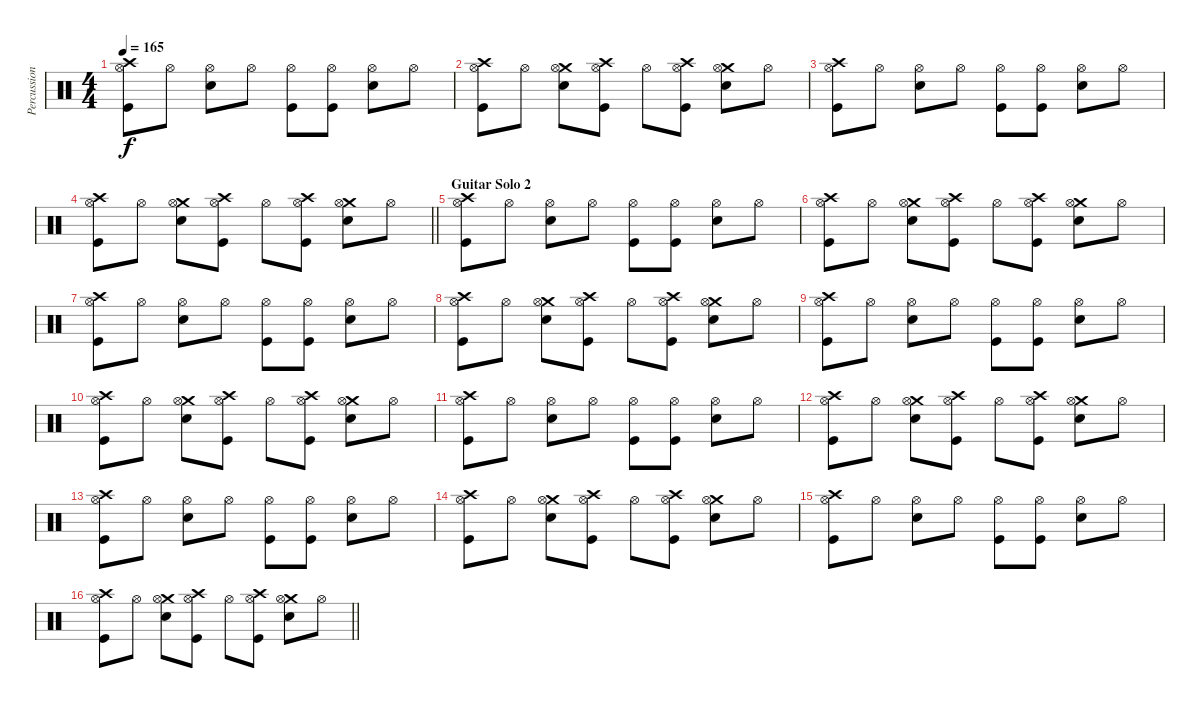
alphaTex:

\track ("Percussion" "Percussion") {instrument percussion}
\staff {score}
\articulation defaults
\ts (4 4)
\tempo 165
\clef neutral
\ks c
("Crash high (hit)" "Hi-Hat (open)" "Kick (hit)").8{dy f} "Hi-Hat (open)".8 ("Hi-Hat (open)" "Snare (hit) 2").8 "Hi-Hat (open)".8 ("Hi-Hat (open)" "Kick (hit)").8 ("Hi-Hat (open)" "Kick (hit)").8 ("Hi-Hat (open)" "Snare (hit) 2").8 "Hi-Hat (open)".8 |
("Crash high (hit)" "Hi-Hat (open)" "Kick (hit)").8 "Hi-Hat (open)".8 ("Crash medium (hit)" "Hi-Hat (open)" "Snare (hit) 2").8 ("Crash high (hit)" "Hi-Hat (open)" "Kick (hit)").8 "Hi-Hat (open)".8 ("Crash high (hit)" "Hi-Hat (open)" "Kick (hit)").8 ("Crash medium (hit)" "Hi-Hat (open)" "Snare (hit) 2").8 "Hi-Hat (open)".8 |
("Crash high (hit)" "Hi-Hat (open)" "Kick (hit)").8 "Hi-Hat (open)".8 ("Hi-Hat (open)" "Snare (hit) 2").8 "Hi-Hat (open)".8 ("Hi-Hat (open)" "Kick (hit)").8 ("Hi-Hat (open)" "Kick (hit)").8 ("Hi-Hat (open)" "Snare (hit) 2").8 "Hi-Hat (open)".8 |
\barLineRight lightlight
("Crash high (hit)" "Hi-Hat (open)" "Kick (hit)").8 "Hi-Hat (open)".8 ("Crash medium (hit)" "Hi-Hat (open)" "Snare (hit) 2").8 ("Crash high (hit)" "Hi-Hat (open)" "Kick (hit)").8 "Hi-Hat (open)".8 ("Crash high (hit)" "Hi-Hat (open)" "Kick (hit)").8 ("Crash medium (hit)" "Hi-Hat (open)" "Snare (hit) 2").8 "Hi-Hat (open)".8 |
\section ("" "Guitar Solo 2")
("Crash high (hit)" "Hi-Hat (open)" "Kick (hit)").8 "Hi-Hat (open)".8 ("Hi-Hat (open)" "Snare (hit) 2").8 "Hi-Hat (open)".8 ("Hi-Hat (open)" "Kick (hit)").8 ("Hi-Hat (open)" "Kick (hit)").8 ("Hi-Hat (open)" "Snare (hit) 2").8 "Hi-Hat (open)".8 |
("Crash high (hit)" "Hi-Hat (open)" "Kick (hit)").8 "Hi-Hat (open)".8 ("Crash medium (hit)" "Hi-Hat (open)" "Snare (hit) 2").8 ("Crash high (hit)" "Hi-Hat (open)" "Kick (hit)").8 "Hi-Hat (open)".8 ("Crash high (hit)" "Hi-Hat (open)" "Kick (hit)").8 ("Crash medium (hit)" "Hi-Hat (open)" "Snare (hit) 2").8 "Hi-Hat (open)".8 |
("Crash high (hit)" "Hi-Hat (open)" "Kick (hit)").8 "Hi-Hat (open)".8 ("Hi-Hat (open)" "Snare (hit) 2").8 "Hi-Hat (open)".8 ("Hi-Hat (open)" "Kick (hit)").8 ("Hi-Hat (open)" "Kick (hit)").8 ("Hi-Hat (open)" "Snare (hit) 2").8 "Hi-Hat (open)".8 |
("Crash high (hit)" "Hi-Hat (open)" "Kick (hit)").8 "Hi-Hat (open)".8 ("Crash medium (hit)" "Hi-Hat (open)" "Snare (hit) 2").8 ("Crash high (hit)" "Hi-Hat (open)" "Kick (hit)").8 "Hi-Hat (open)".8 ("Crash high (hit)" "Hi-Hat (open)" "Kick (hit)").8 ("Crash medium (hit)" "Hi-Hat (open)" "Snare (hit) 2").8 "Hi-Hat (open)".8 |
("Crash high (hit)" "Hi-Hat (open)" "Kick (hit)").8 "Hi-Hat (open)".8 ("Hi-Hat (open)" "Snare (hit) 2").8 "Hi-Hat (open)".8 ("Hi-Hat (open)" "Kick (hit)").8 ("Hi-Hat (open)" "Kick (hit)").8 ("Hi-Hat (open)" "Snare (hit) 2").8 "Hi-Hat (open)".8 |
("Crash high (hit)" "Hi-Hat (open)" "Kick (hit)").8 "Hi-Hat (open)".8 ("Crash medium (hit)" "Hi-Hat (open)" "Snare (hit) 2").8 ("Crash high (hit)" "Hi-Hat (open)" "Kick (hit)").8 "Hi-Hat (open)".8 ("Crash high (hit)" "Hi-Hat (open)" "Kick (hit)").8 ("Crash medium (hit)" "Hi-Hat (open)" "Snare (hit) 2").8 "Hi-Hat (open)".8 |
("Crash high (hit)" "Hi-Hat (open)" "Kick (hit)").8 "Hi-Hat (open)".8 ("Hi-Hat (open)" "Snare (hit) 2").8 "Hi-Hat (open)".8 ("Hi-Hat (open)" "Kick (hit)").8 ("Hi-Hat (open)" "Kick (hit)").8 ("Hi-Hat (open)" "Snare (hit) 2").8 "Hi-Hat (open)".8 |
("Crash high (hit)" "Hi-Hat (open)" "Kick (hit)").8 "Hi-Hat (open)".8 ("Crash medium (hit)" "Hi-Hat (open)" "Snare (hit) 2").8 ("Crash high (hit)" "Hi-Hat (open)" "Kick (hit)").8 "Hi-Hat (open)".8 ("Crash high (hit)" "Hi-Hat (open)" "Kick (hit)").8 ("Crash medium (hit)" "Hi-Hat (open)" "Snare (hit) 2").8 "Hi-Hat (open)".8 |
("Crash high (hit)" "Hi-Hat (open)" "Kick (hit)").8 "Hi-Hat (open)".8 ("Hi-Hat (open)" "Snare (hit) 2").8 "Hi-Hat (open)".8 ("Hi-Hat (open)" "Kick (hit)").8 ("Hi-Hat (open)" "Kick (hit)").8 ("Hi-Hat (open)" "Snare (hit) 2").8 "Hi-Hat (open)".8 |
("Crash high (hit)" "Hi-Hat (open)" "Kick (hit)").8 "Hi-Hat (open)".8 ("Crash medium (hit)" "Hi-Hat (open)" "Snare (hit) 2").8 ("Crash high (hit)" "Hi-Hat (open)" "Kick (hit)").8 "Hi-Hat (open)".8 ("Crash high (hit)" "Hi-Hat (open)" "Kick (hit)").8 ("Crash medium (hit)" "Hi-Hat (open)" "Snare (hit) 2").8 "Hi-Hat (open)".8 |
("Crash high (hit)" "Hi-Hat (open)" "Kick (hit)").8 "Hi-Hat (open)".8 ("Hi-Hat (open)" "Snare (hit) 2").8 "Hi-Hat (open)".8 ("Hi-Hat (open)" "Kick (hit)").8 ("Hi-Hat (open)" "Kick (hit)").8 ("Hi-Hat (open)" "Snare (hit) 2").8 "Hi-Hat (open)".8 |
\barLineRight lightlight
("Crash high (hit)" "Hi-Hat (open)" "Kick (hit)").8 "Hi-Hat (open)".8 ("Crash medium (hit)" "Hi-Hat (open)" "Snare (hit) 2").8 ("Crash high (hit)" "Hi-Hat (open)" "Kick (hit)").8 "Hi-Hat (open)".8 ("Crash high (hit)" "Hi-Hat (open)" "Kick (hit)").8 ("Crash medium (hit)" "Hi-Hat (open)" "Snare (hit) 2").8 "Hi-Hat (open)".8
